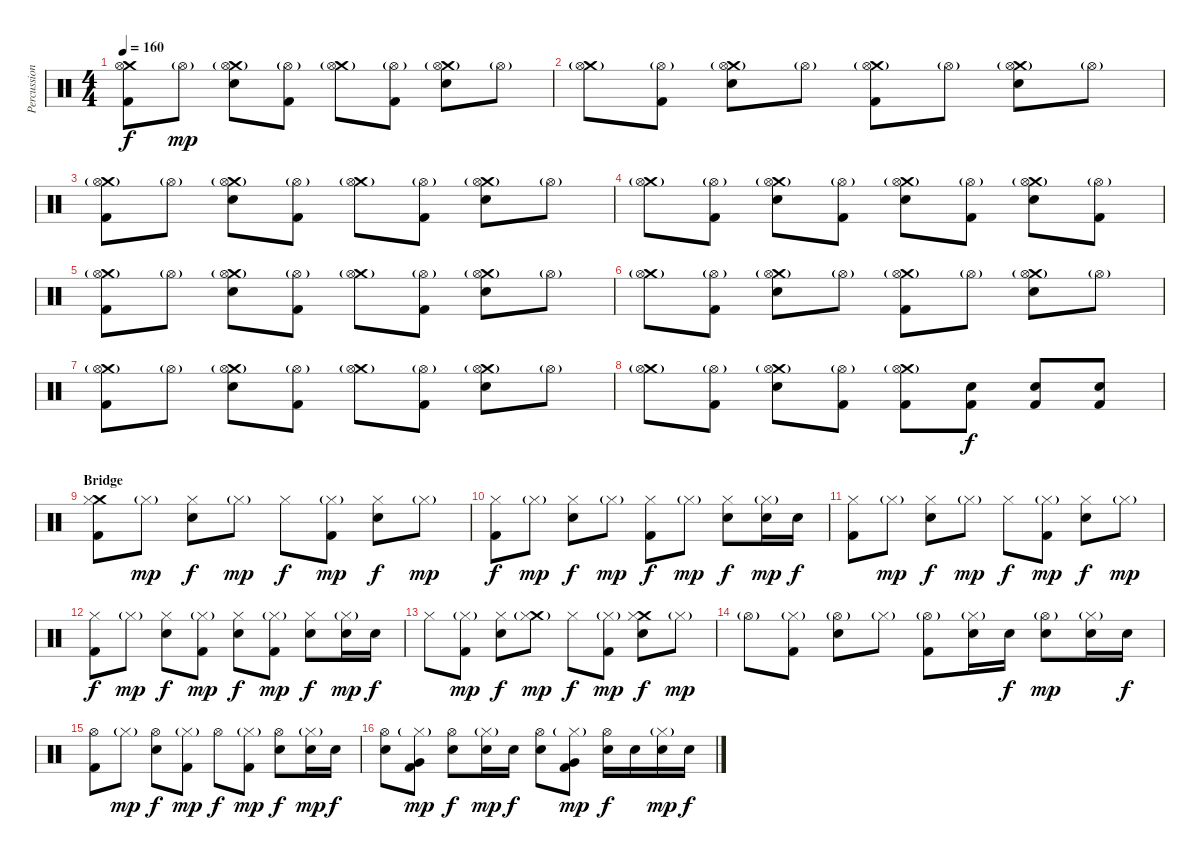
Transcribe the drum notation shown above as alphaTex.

\track ("Percussions" "Percussion") {instrument percussion}
\staff {score}
\articulation defaults
\ts (4 4)
\tempo 160
\clef neutral
\ks c
("Crash medium (hit)" "Hi-Hat (open)" "Kick (hit) 2").8{dy f} "Hi-Hat (open)"{g}.8{dy mp} ("Crash medium (hit)"{g} "Hi-Hat (open)" "Snare (hit) 2").8 ("Hi-Hat (open)"{g} "Kick (hit) 2").8 ("Crash medium (hit)"{g} "Hi-Hat (open)").8 ("Hi-Hat (open)"{g} "Kick (hit) 2").8 ("Crash medium (hit)"{g} "Hi-Hat (open)" "Snare (hit) 2").8 "Hi-Hat (open)"{g}.8 |
("Crash medium (hit)"{g} "Hi-Hat (open)").8 ("Hi-Hat (open)"{g} "Kick (hit) 2").8 ("Crash medium (hit)"{g} "Hi-Hat (open)" "Snare (hit) 2").8 "Hi-Hat (open)"{g}.8 ("Crash medium (hit)"{g} "Hi-Hat (open)" "Kick (hit) 2").8 "Hi-Hat (open)"{g}.8 ("Crash medium (hit)"{g} "Hi-Hat (open)" "Snare (hit) 2").8 "Hi-Hat (open)"{g}.8 |
("Crash medium (hit)"{g} "Hi-Hat (open)" "Kick (hit) 2").8 "Hi-Hat (open)"{g}.8 ("Crash medium (hit)"{g} "Hi-Hat (open)" "Snare (hit) 2").8 ("Hi-Hat (open)"{g} "Kick (hit) 2").8 ("Crash medium (hit)"{g} "Hi-Hat (open)").8 ("Hi-Hat (open)"{g} "Kick (hit) 2").8 ("Crash medium (hit)"{g} "Hi-Hat (open)" "Snare (hit) 2").8 "Hi-Hat (open)"{g}.8 |
("Crash medium (hit)"{g} "Hi-Hat (open)").8 ("Hi-Hat (open)"{g} "Kick (hit) 2").8 ("Crash medium (hit)"{g} "Hi-Hat (open)" "Snare (hit) 2").8 ("Hi-Hat (open)"{g} "Kick (hit) 2").8 ("Crash medium (hit)"{g} "Hi-Hat (open)" "Snare (hit) 2").8 ("Hi-Hat (open)"{g} "Kick (hit) 2").8 ("Crash medium (hit)"{g} "Hi-Hat (open)" "Snare (hit) 2").8 ("Hi-Hat (open)"{g} "Kick (hit) 2").8 |
("Crash medium (hit)"{g} "Hi-Hat (open)" "Kick (hit) 2").8 "Hi-Hat (open)"{g}.8 ("Crash medium (hit)"{g} "Hi-Hat (open)" "Snare (hit) 2").8 ("Hi-Hat (open)"{g} "Kick (hit) 2").8 ("Crash medium (hit)"{g} "Hi-Hat (open)").8 ("Hi-Hat (open)"{g} "Kick (hit) 2").8 ("Crash medium (hit)"{g} "Hi-Hat (open)" "Snare (hit) 2").8 "Hi-Hat (open)"{g}.8 |
("Crash medium (hit)"{g} "Hi-Hat (open)").8 ("Hi-Hat (open)"{g} "Kick (hit) 2").8 ("Crash medium (hit)"{g} "Hi-Hat (open)" "Snare (hit) 2").8 "Hi-Hat (open)"{g}.8 ("Crash medium (hit)"{g} "Hi-Hat (open)" "Kick (hit) 2").8 "Hi-Hat (open)"{g}.8 ("Crash medium (hit)"{g} "Hi-Hat (open)" "Snare (hit) 2").8 "Hi-Hat (open)"{g}.8 |
("Crash medium (hit)"{g} "Hi-Hat (open)" "Kick (hit) 2").8 "Hi-Hat (open)"{g}.8 ("Crash medium (hit)"{g} "Hi-Hat (open)" "Snare (hit) 2").8 ("Hi-Hat (open)"{g} "Kick (hit) 2").8 ("Crash medium (hit)"{g} "Hi-Hat (open)").8 ("Hi-Hat (open)"{g} "Kick (hit) 2").8 ("Crash medium (hit)"{g} "Hi-Hat (open)" "Snare (hit) 2").8 "Hi-Hat (open)"{g}.8 |
("Crash medium (hit)"{g} "Hi-Hat (open)").8 ("Hi-Hat (open)"{g} "Kick (hit) 2").8 ("Crash medium (hit)"{g} "Hi-Hat (open)" "Snare (hit) 2").8 ("Hi-Hat (open)"{g} "Kick (hit) 2").8 ("Crash medium (hit)"{g} "Hi-Hat (open)" "Kick (hit) 2").8 ("Snare (hit) 2" "Kick (hit) 2").8{dy f} ("Snare (hit) 2" "Kick (hit) 2").8 ("Snare (hit) 2" "Kick (hit) 2").8 |
\section ("" "Bridge")
("Crash medium (hit)" "Hi-Hat (closed)" "Kick (hit) 2").8 "Hi-Hat (closed)"{g}.8{dy mp} ("Hi-Hat (closed)" "Snare (hit) 2").8{dy f} "Hi-Hat (closed)"{g}.8{dy mp} "Hi-Hat (closed)".8{dy f} ("Hi-Hat (closed)"{g} "Kick (hit) 2").8{dy mp} ("Hi-Hat (closed)" "Snare (hit) 2").8{dy f} "Hi-Hat (closed)"{g}.8{dy mp} |
("Hi-Hat (closed)" "Kick (hit) 2").8{dy f} "Hi-Hat (closed)"{g}.8{dy mp} ("Hi-Hat (closed)" "Snare (hit) 2").8{dy f} "Hi-Hat (closed)"{g}.8{dy mp} ("Hi-Hat (closed)" "Kick (hit) 2").8{dy f} "Hi-Hat (closed)"{g}.8{dy mp} ("Hi-Hat (closed)" "Snare (hit) 2").8{dy f} ("Hi-Hat (closed)"{g} "Snare (hit) 2").16{dy mp} "Snare (hit) 2".16{dy f} |
("Hi-Hat (closed)" "Kick (hit) 2").8 "Hi-Hat (closed)"{g}.8{dy mp} ("Hi-Hat (closed)" "Snare (hit) 2").8{dy f} "Hi-Hat (closed)"{g}.8{dy mp} "Hi-Hat (closed)".8{dy f} ("Hi-Hat (closed)"{g} "Kick (hit) 2").8{dy mp} ("Hi-Hat (closed)" "Snare (hit) 2").8{dy f} "Hi-Hat (closed)"{g}.8{dy mp} |
("Hi-Hat (closed)" "Kick (hit) 2").8{dy f} "Hi-Hat (closed)"{g}.8{dy mp} ("Hi-Hat (closed)" "Snare (hit) 2").8{dy f} ("Hi-Hat (closed)"{g} "Kick (hit) 2").8{dy mp} ("Hi-Hat (closed)" "Snare (hit) 2").8{dy f} ("Hi-Hat (closed)"{g} "Kick (hit) 2").8{dy mp} ("Hi-Hat (closed)" "Snare (hit) 2").8{dy f} ("Hi-Hat (closed)"{g} "Snare (hit) 2").16{dy mp} "Snare (hit) 2".16{dy f} |
"Hi-Hat (closed)".8 ("Hi-Hat (closed)"{g} "Kick (hit) 2").8{dy mp} ("Hi-Hat (closed)" "Snare (hit) 2").8{dy f} ("Crash medium (hit)" "Hi-Hat (closed)"{g}).8{dy mp} "Hi-Hat (closed)".8{dy f} ("Hi-Hat (closed)"{g} "Kick (hit) 2").8{dy mp} ("Crash medium (hit)" "Hi-Hat (closed)" "Snare (hit) 2").8{dy f} "Hi-Hat (closed)"{g}.8{dy mp} |
"Hi-Hat (open)"{g}.8 ("Hi-Hat (closed)"{g} "Kick (hit) 2").8 ("Hi-Hat (open)"{g} "Snare (hit) 2").8 "Hi-Hat (closed)"{g}.8 ("Hi-Hat (open)"{g} "Kick (hit) 2").8 ("Hi-Hat (closed)"{g} "Snare (hit) 2").16 "Snare (hit) 2".16{dy f} ("Hi-Hat (open)"{g} "Snare (hit) 2").8{dy mp} ("Hi-Hat (closed)"{g} "Snare (hit) 2").16 "Snare (hit) 2".16{dy f} |
("Hi-Hat (open)" "Kick (hit) 2").8 "Hi-Hat (closed)"{g}.8{dy mp} ("Hi-Hat (open)" "Snare (hit) 2").8{dy f} ("Hi-Hat (closed)"{g} "Kick (hit) 2").8{dy mp} "Hi-Hat (open)".8{dy f} ("Hi-Hat (closed)"{g} "Kick (hit) 2").8{dy mp} ("Hi-Hat (open)" "Snare (hit) 2").8{dy f} ("Hi-Hat (closed)"{g} "Snare (hit) 2").16{dy mp} "Snare (hit) 2".16{dy f} |
("Hi-Hat (open)" "Snare (hit) 2").8 ("Hi-Hat (closed)"{g} "Very Low Tom (hit)" "Kick (hit) 2").8{dy mp} ("Hi-Hat (open)" "Snare (hit) 2").8{dy f} ("Hi-Hat (closed)"{g} "Snare (hit) 2").16{dy mp} "Snare (hit) 2".16{dy f} ("Hi-Hat (open)" "Snare (hit) 2").8 ("Hi-Hat (closed)"{g} "Very Low Tom (hit)" "Kick (hit) 2").8{dy mp} ("Hi-Hat (open)" "Snare (hit) 2").16{dy f} "Snare (hit) 2".16 ("Hi-Hat (closed)"{g} "Snare (hit) 2").16{dy mp} "Snare (hit) 2".16{dy f}
